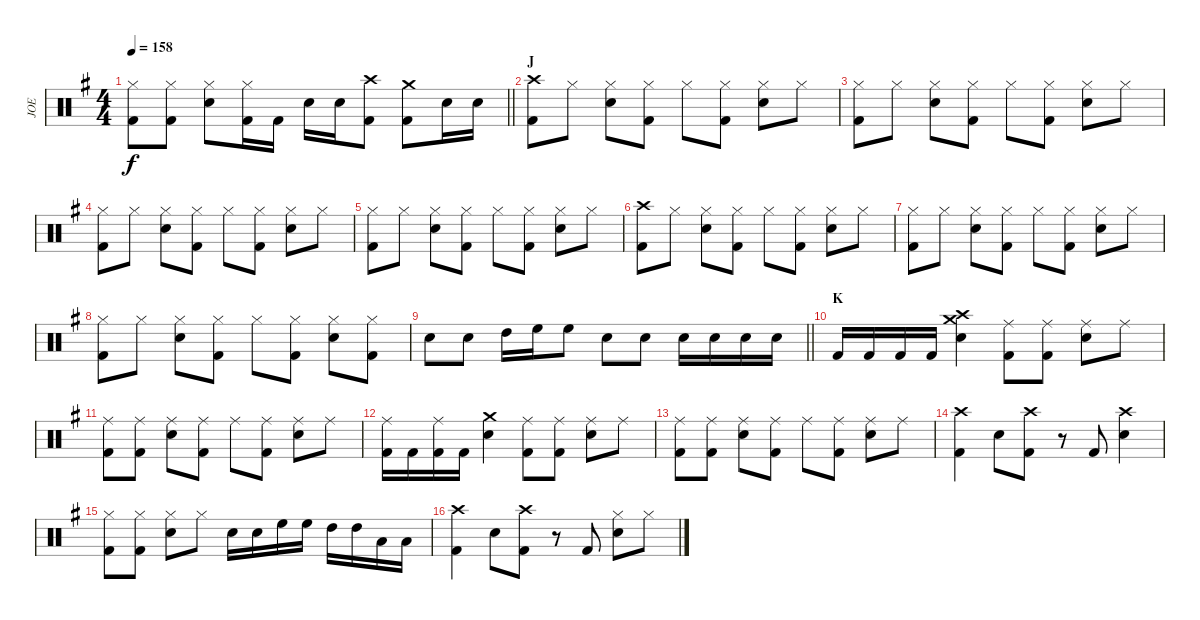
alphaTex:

\track ("JOE" "JOE") {instrument percussion}
\staff {score}
\articulation defaults
\ts (4 4)
\tempo 158
\clef neutral
\barLineRight lightlight
\ks g
("Hi-Hat (closed)" "Kick (hit) 2").8{dy f} ("Hi-Hat (closed)" "Kick (hit) 2").8 ("Hi-Hat (closed)" "Snare (hit) 2").8 ("Hi-Hat (closed)" "Kick (hit) 2").16 "Kick (hit) 2".16 "Snare (hit) 2".16 "Snare (hit) 2".16 ("Crash high (hit)" "Kick (hit) 2").8 ("Crash medium (hit)" "Kick (hit) 2").8 "Snare (hit) 2".16 "Snare (hit) 2".16 |
\section ("" "J")
("Crash high (hit)" "Kick (hit) 2").8 "Hi-Hat (closed)".8 ("Hi-Hat (closed)" "Snare (hit) 2").8 ("Hi-Hat (closed)" "Kick (hit) 2").8 "Hi-Hat (closed)".8 ("Hi-Hat (closed)" "Kick (hit) 2").8 ("Hi-Hat (closed)" "Snare (hit) 2").8 "Hi-Hat (closed)".8 |
("Hi-Hat (closed)" "Kick (hit) 2").8 "Hi-Hat (closed)".8 ("Hi-Hat (closed)" "Snare (hit) 2").8 ("Hi-Hat (closed)" "Kick (hit) 2").8 "Hi-Hat (closed)".8 ("Hi-Hat (closed)" "Kick (hit) 2").8 ("Hi-Hat (closed)" "Snare (hit) 2").8 "Hi-Hat (closed)".8 |
("Hi-Hat (closed)" "Kick (hit) 2").8 "Hi-Hat (closed)".8 ("Hi-Hat (closed)" "Snare (hit) 2").8 ("Hi-Hat (closed)" "Kick (hit) 2").8 "Hi-Hat (closed)".8 ("Hi-Hat (closed)" "Kick (hit) 2").8 ("Hi-Hat (closed)" "Snare (hit) 2").8 "Hi-Hat (closed)".8 |
("Hi-Hat (closed)" "Kick (hit) 2").8 "Hi-Hat (closed)".8 ("Hi-Hat (closed)" "Snare (hit) 2").8 ("Hi-Hat (closed)" "Kick (hit) 2").8 "Hi-Hat (closed)".8 ("Hi-Hat (closed)" "Kick (hit) 2").8 ("Hi-Hat (closed)" "Snare (hit) 2").8 "Hi-Hat (closed)".8 |
("Crash high (hit)" "Kick (hit) 2").8 "Hi-Hat (closed)".8 ("Hi-Hat (closed)" "Snare (hit) 2").8 ("Hi-Hat (closed)" "Kick (hit) 2").8 "Hi-Hat (closed)".8 ("Hi-Hat (closed)" "Kick (hit) 2").8 ("Hi-Hat (closed)" "Snare (hit) 2").8 "Hi-Hat (closed)".8 |
("Hi-Hat (closed)" "Kick (hit) 2").8 "Hi-Hat (closed)".8 ("Hi-Hat (closed)" "Snare (hit) 2").8 ("Hi-Hat (closed)" "Kick (hit) 2").8 "Hi-Hat (closed)".8 ("Hi-Hat (closed)" "Kick (hit) 2").8 ("Hi-Hat (closed)" "Snare (hit) 2").8 "Hi-Hat (closed)".8 |
("Hi-Hat (closed)" "Kick (hit) 2").8 "Hi-Hat (closed)".8 ("Hi-Hat (closed)" "Snare (hit) 2").8 ("Hi-Hat (closed)" "Kick (hit) 2").8 "Hi-Hat (closed)".8 ("Hi-Hat (closed)" "Kick (hit) 2").8 ("Hi-Hat (closed)" "Snare (hit) 2").8 ("Hi-Hat (closed)" "Kick (hit) 2").8 |
\barLineRight lightlight "Snare (hit) 2".8 "Snare (hit) 2".8 "High Tom (hit)".16 "High Floor Tom (hit)".16 "High Floor Tom (hit)".8 "Snare (hit) 2".8 "Snare (hit) 2".8 "Snare (hit) 2".16 "Snare (hit) 2".16 "Snare (hit) 2".16 "Snare (hit) 2".16
|
\section ("" "K")
"Kick (hit) 2".16 "Kick (hit) 2".16 "Kick (hit) 2".16 "Kick (hit) 2".16 ("Crash high (hit)" "Snare (hit) 2" "Crash medium (hit)").4 ("Ride (middle)" "Kick (hit) 2").8 ("Ride (middle)" "Kick (hit) 2").8 ("Ride (middle)" "Snare (hit) 2").8 "Ride (middle)".8 |
("Ride (middle)" "Kick (hit) 2").8 ("Ride (middle)" "Kick (hit) 2").8 ("Ride (middle)" "Snare (hit) 2").8 ("Ride (middle)" "Kick (hit) 2").8 "Ride (middle)".8 ("Ride (middle)" "Kick (hit) 2").8 ("Ride (middle)" "Snare (hit) 2").8 "Ride (middle)".8 |
("Ride (middle)" "Kick (hit) 2").16 "Kick (hit) 2".16 ("Ride (middle)" "Kick (hit) 2").16 "Kick (hit) 2".16 ("Snare (hit) 2" "Crash medium (hit)").4 ("Ride (middle)" "Kick (hit) 2").8 ("Ride (middle)" "Kick (hit) 2").8 ("Ride (middle)" "Snare (hit) 2").8 "Ride (middle)".8 |
("Ride (middle)" "Kick (hit) 2").8 ("Ride (middle)" "Kick (hit) 2").8 ("Ride (middle)" "Snare (hit) 2").8 ("Ride (middle)" "Kick (hit) 2").8 "Ride (middle)".8 ("Ride (middle)" "Kick (hit) 2").8 ("Ride (middle)" "Snare (hit) 2").8 "Ride (middle)".8 |
("Crash high (hit)" "Kick (hit) 2").4 "Snare (hit) 2".8 ("Crash high (hit)" "Kick (hit) 2").8 r.8 "Kick (hit) 2".8 ("Crash high (hit)" "Snare (hit) 2").4 |
("Hi-Hat (closed)" "Kick (hit) 2").8 ("Hi-Hat (closed)" "Kick (hit) 2").8 ("Hi-Hat (closed)" "Snare (hit) 2").8 "Hi-Hat (closed)".8 "Snare (hit) 2".16 "Snare (hit) 2".16 "High Floor Tom (hit)".16 "High Floor Tom (hit)".16 "High Tom (hit)".16 "High Tom (hit)".16 "Low Tom (hit)".16 "Low Tom (hit)".16 |
("Crash high (hit)" "Kick (hit) 2").4 "Snare (hit) 2".8 ("Crash high (hit)" "Kick (hit) 2").8 r.8 "Kick (hit) 2".8 ("Hi-Hat (closed)" "Snare (hit) 2").8 "Hi-Hat (closed)".8
